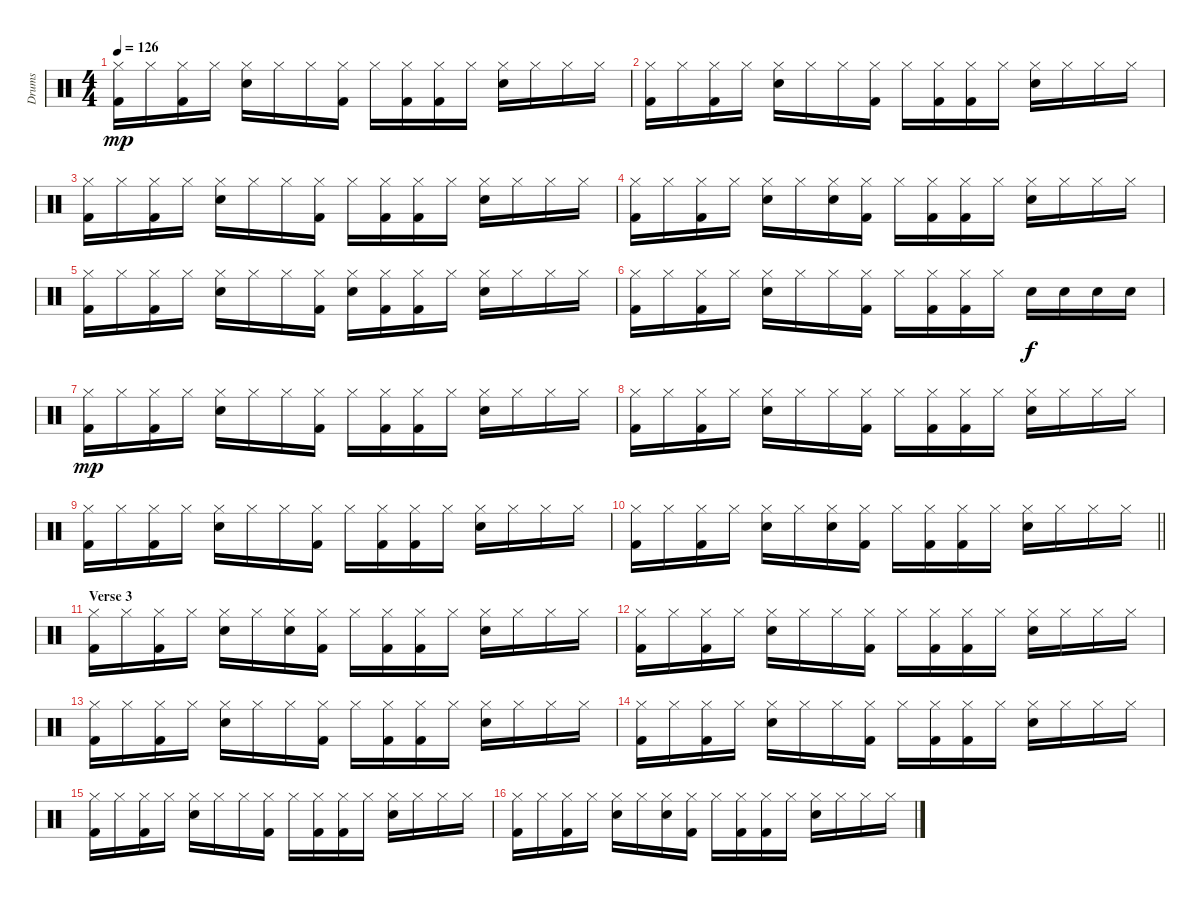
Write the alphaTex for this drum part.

\track ("Drums" "Drums") {instrument percussion}
\staff {score}
\articulation defaults
\ts (4 4)
\tempo 126
\clef neutral
\ks c
("Hi-Hat (closed)" "Kick (hit) 2").16{dy mp} "Hi-Hat (closed)".16 ("Hi-Hat (closed)" "Kick (hit) 2").16 "Hi-Hat (closed)".16 ("Hi-Hat (closed)" "Snare (hit) 2").16 "Hi-Hat (closed)".16 "Hi-Hat (closed)".16 ("Hi-Hat (closed)" "Kick (hit) 2").16 "Hi-Hat (closed)".16 ("Hi-Hat (closed)" "Kick (hit) 2").16 ("Hi-Hat (closed)" "Kick (hit) 2").16 "Hi-Hat (closed)".16 ("Hi-Hat (closed)" "Snare (hit) 2").16 "Hi-Hat (closed)".16 "Hi-Hat (closed)".16 "Hi-Hat (closed)".16 |
("Hi-Hat (closed)" "Kick (hit) 2").16 "Hi-Hat (closed)".16 ("Hi-Hat (closed)" "Kick (hit) 2").16 "Hi-Hat (closed)".16 ("Hi-Hat (closed)" "Snare (hit) 2").16 "Hi-Hat (closed)".16 "Hi-Hat (closed)".16 ("Hi-Hat (closed)" "Kick (hit) 2").16 "Hi-Hat (closed)".16 ("Hi-Hat (closed)" "Kick (hit) 2").16 ("Hi-Hat (closed)" "Kick (hit) 2").16 "Hi-Hat (closed)".16 ("Hi-Hat (closed)" "Snare (hit) 2").16 "Hi-Hat (closed)".16 "Hi-Hat (closed)".16 "Hi-Hat (closed)".16 |
("Hi-Hat (closed)" "Kick (hit) 2").16 "Hi-Hat (closed)".16 ("Hi-Hat (closed)" "Kick (hit) 2").16 "Hi-Hat (closed)".16 ("Hi-Hat (closed)" "Snare (hit) 2").16 "Hi-Hat (closed)".16 "Hi-Hat (closed)".16 ("Hi-Hat (closed)" "Kick (hit) 2").16 "Hi-Hat (closed)".16 ("Hi-Hat (closed)" "Kick (hit) 2").16 ("Hi-Hat (closed)" "Kick (hit) 2").16 "Hi-Hat (closed)".16 ("Hi-Hat (closed)" "Snare (hit) 2").16 "Hi-Hat (closed)".16 "Hi-Hat (closed)".16 "Hi-Hat (closed)".16 |
("Hi-Hat (closed)" "Kick (hit) 2").16 "Hi-Hat (closed)".16 ("Hi-Hat (closed)" "Kick (hit) 2").16 "Hi-Hat (closed)".16 ("Hi-Hat (closed)" "Snare (hit) 2").16 "Hi-Hat (closed)".16 ("Hi-Hat (closed)" "Snare (hit) 2").16 ("Hi-Hat (closed)" "Kick (hit) 2").16 "Hi-Hat (closed)".16 ("Hi-Hat (closed)" "Kick (hit) 2").16 ("Hi-Hat (closed)" "Kick (hit) 2").16 "Hi-Hat (closed)".16 ("Hi-Hat (closed)" "Snare (hit) 2").16 "Hi-Hat (closed)".16 "Hi-Hat (closed)".16 "Hi-Hat (closed)".16 |
("Hi-Hat (closed)" "Kick (hit) 2").16 "Hi-Hat (closed)".16 ("Hi-Hat (closed)" "Kick (hit) 2").16 "Hi-Hat (closed)".16 ("Hi-Hat (closed)" "Snare (hit) 2").16 "Hi-Hat (closed)".16 "Hi-Hat (closed)".16 ("Hi-Hat (closed)" "Kick (hit) 2").16 ("Hi-Hat (closed)" "Snare (hit) 2").16 ("Hi-Hat (closed)" "Kick (hit) 2").16 ("Hi-Hat (closed)" "Kick (hit) 2").16 "Hi-Hat (closed)".16 ("Hi-Hat (closed)" "Snare (hit) 2").16 "Hi-Hat (closed)".16 "Hi-Hat (closed)".16 "Hi-Hat (closed)".16 |
("Hi-Hat (closed)" "Kick (hit) 2").16 "Hi-Hat (closed)".16 ("Hi-Hat (closed)" "Kick (hit) 2").16 "Hi-Hat (closed)".16 ("Hi-Hat (closed)" "Snare (hit) 2").16 "Hi-Hat (closed)".16 "Hi-Hat (closed)".16 ("Hi-Hat (closed)" "Kick (hit) 2").16 "Hi-Hat (closed)".16 ("Hi-Hat (closed)" "Kick (hit) 2").16 ("Hi-Hat (closed)" "Kick (hit) 2").16 "Hi-Hat (closed)".16 "Snare (hit) 2".16{dy f} "Snare (hit) 2".16 "Snare (hit) 2".16 "Snare (hit) 2".16 |
("Hi-Hat (closed)" "Kick (hit) 2").16{dy mp} "Hi-Hat (closed)".16 ("Hi-Hat (closed)" "Kick (hit) 2").16 "Hi-Hat (closed)".16 ("Hi-Hat (closed)" "Snare (hit) 2").16 "Hi-Hat (closed)".16 "Hi-Hat (closed)".16 ("Hi-Hat (closed)" "Kick (hit) 2").16 "Hi-Hat (closed)".16 ("Hi-Hat (closed)" "Kick (hit) 2").16 ("Hi-Hat (closed)" "Kick (hit) 2").16 "Hi-Hat (closed)".16 ("Hi-Hat (closed)" "Snare (hit) 2").16 "Hi-Hat (closed)".16 "Hi-Hat (closed)".16 "Hi-Hat (closed)".16 |
("Hi-Hat (closed)" "Kick (hit) 2").16 "Hi-Hat (closed)".16 ("Hi-Hat (closed)" "Kick (hit) 2").16 "Hi-Hat (closed)".16 ("Hi-Hat (closed)" "Snare (hit) 2").16 "Hi-Hat (closed)".16 "Hi-Hat (closed)".16 ("Hi-Hat (closed)" "Kick (hit) 2").16 "Hi-Hat (closed)".16 ("Hi-Hat (closed)" "Kick (hit) 2").16 ("Hi-Hat (closed)" "Kick (hit) 2").16 "Hi-Hat (closed)".16 ("Hi-Hat (closed)" "Snare (hit) 2").16 "Hi-Hat (closed)".16 "Hi-Hat (closed)".16 "Hi-Hat (closed)".16 |
("Hi-Hat (closed)" "Kick (hit) 2").16 "Hi-Hat (closed)".16 ("Hi-Hat (closed)" "Kick (hit) 2").16 "Hi-Hat (closed)".16 ("Hi-Hat (closed)" "Snare (hit) 2").16 "Hi-Hat (closed)".16 "Hi-Hat (closed)".16 ("Hi-Hat (closed)" "Kick (hit) 2").16 "Hi-Hat (closed)".16 ("Hi-Hat (closed)" "Kick (hit) 2").16 ("Hi-Hat (closed)" "Kick (hit) 2").16 "Hi-Hat (closed)".16 ("Hi-Hat (closed)" "Snare (hit) 2").16 "Hi-Hat (closed)".16 "Hi-Hat (closed)".16 "Hi-Hat (closed)".16 |
\barLineRight lightlight
("Hi-Hat (closed)" "Kick (hit) 2").16 "Hi-Hat (closed)".16 ("Hi-Hat (closed)" "Kick (hit) 2").16 "Hi-Hat (closed)".16 ("Hi-Hat (closed)" "Snare (hit) 2").16 "Hi-Hat (closed)".16 ("Hi-Hat (closed)" "Snare (hit) 2").16 ("Hi-Hat (closed)" "Kick (hit) 2").16 "Hi-Hat (closed)".16 ("Hi-Hat (closed)" "Kick (hit) 2").16 ("Hi-Hat (closed)" "Kick (hit) 2").16 "Hi-Hat (closed)".16 ("Hi-Hat (closed)" "Snare (hit) 2").16 "Hi-Hat (closed)".16 "Hi-Hat (closed)".16 "Hi-Hat (closed)".16 |
\section ("" "Verse 3")
("Hi-Hat (closed)" "Kick (hit) 2").16 "Hi-Hat (closed)".16 ("Hi-Hat (closed)" "Kick (hit) 2").16 "Hi-Hat (closed)".16 ("Hi-Hat (closed)" "Snare (hit) 2").16 "Hi-Hat (closed)".16 ("Hi-Hat (closed)" "Snare (hit) 2").16 ("Hi-Hat (closed)" "Kick (hit) 2").16 "Hi-Hat (closed)".16 ("Hi-Hat (closed)" "Kick (hit) 2").16 ("Hi-Hat (closed)" "Kick (hit) 2").16 "Hi-Hat (closed)".16 ("Hi-Hat (closed)" "Snare (hit) 2").16 "Hi-Hat (closed)".16 "Hi-Hat (closed)".16 "Hi-Hat (closed)".16 |
("Hi-Hat (closed)" "Kick (hit) 2").16 "Hi-Hat (closed)".16 ("Hi-Hat (closed)" "Kick (hit) 2").16 "Hi-Hat (closed)".16 ("Hi-Hat (closed)" "Snare (hit) 2").16 "Hi-Hat (closed)".16 "Hi-Hat (closed)".16 ("Hi-Hat (closed)" "Kick (hit) 2").16 "Hi-Hat (closed)".16 ("Hi-Hat (closed)" "Kick (hit) 2").16 ("Hi-Hat (closed)" "Kick (hit) 2").16 "Hi-Hat (closed)".16 ("Hi-Hat (closed)" "Snare (hit) 2").16 "Hi-Hat (closed)".16 "Hi-Hat (closed)".16 "Hi-Hat (closed)".16 |
("Hi-Hat (closed)" "Kick (hit) 2").16 "Hi-Hat (closed)".16 ("Hi-Hat (closed)" "Kick (hit) 2").16 "Hi-Hat (closed)".16 ("Hi-Hat (closed)" "Snare (hit) 2").16 "Hi-Hat (closed)".16 "Hi-Hat (closed)".16 ("Hi-Hat (closed)" "Kick (hit) 2").16 "Hi-Hat (closed)".16 ("Hi-Hat (closed)" "Kick (hit) 2").16 ("Hi-Hat (closed)" "Kick (hit) 2").16 "Hi-Hat (closed)".16 ("Hi-Hat (closed)" "Snare (hit) 2").16 "Hi-Hat (closed)".16 "Hi-Hat (closed)".16 "Hi-Hat (closed)".16 |
("Hi-Hat (closed)" "Kick (hit) 2").16 "Hi-Hat (closed)".16 ("Hi-Hat (closed)" "Kick (hit) 2").16 "Hi-Hat (closed)".16 ("Hi-Hat (closed)" "Snare (hit) 2").16 "Hi-Hat (closed)".16 "Hi-Hat (closed)".16 ("Hi-Hat (closed)" "Kick (hit) 2").16 "Hi-Hat (closed)".16 ("Hi-Hat (closed)" "Kick (hit) 2").16 ("Hi-Hat (closed)" "Kick (hit) 2").16 "Hi-Hat (closed)".16 ("Hi-Hat (closed)" "Snare (hit) 2").16 "Hi-Hat (closed)".16 "Hi-Hat (closed)".16 "Hi-Hat (closed)".16 |
("Hi-Hat (closed)" "Kick (hit) 2").16 "Hi-Hat (closed)".16 ("Hi-Hat (closed)" "Kick (hit) 2").16 "Hi-Hat (closed)".16 ("Hi-Hat (closed)" "Snare (hit) 2").16 "Hi-Hat (closed)".16 "Hi-Hat (closed)".16 ("Hi-Hat (closed)" "Kick (hit) 2").16 "Hi-Hat (closed)".16 ("Hi-Hat (closed)" "Kick (hit) 2").16 ("Hi-Hat (closed)" "Kick (hit) 2").16 "Hi-Hat (closed)".16 ("Hi-Hat (closed)" "Snare (hit) 2").16 "Hi-Hat (closed)".16 "Hi-Hat (closed)".16 "Hi-Hat (closed)".16 |
("Hi-Hat (closed)" "Kick (hit) 2").16 "Hi-Hat (closed)".16 ("Hi-Hat (closed)" "Kick (hit) 2").16 "Hi-Hat (closed)".16 ("Hi-Hat (closed)" "Snare (hit) 2").16 "Hi-Hat (closed)".16 ("Hi-Hat (closed)" "Snare (hit) 2").16 ("Hi-Hat (closed)" "Kick (hit) 2").16 "Hi-Hat (closed)".16 ("Hi-Hat (closed)" "Kick (hit) 2").16 ("Hi-Hat (closed)" "Kick (hit) 2").16 "Hi-Hat (closed)".16 ("Hi-Hat (closed)" "Snare (hit) 2").16 "Hi-Hat (closed)".16 "Hi-Hat (closed)".16 "Hi-Hat (closed)".16
